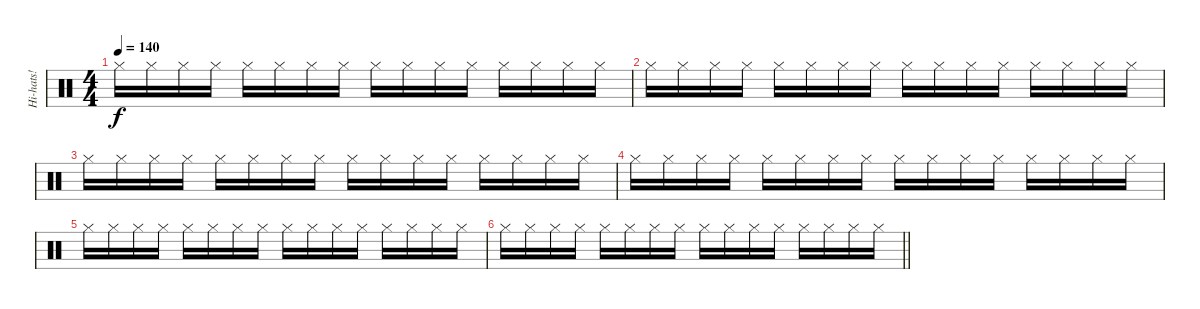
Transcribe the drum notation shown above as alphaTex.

\track ("Hi-hats!" "Hi-hats!") {instrument percussion}
\staff {score}
\articulation defaults
\ts (4 4)
\tempo 140
\clef neutral
\ks c "Hi-Hat (closed)".16{dy f} "Hi-Hat (closed)".16 "Hi-Hat (closed)".16 "Hi-Hat (closed)".16 "Hi-Hat (closed)".16 "Hi-Hat (closed)".16 "Hi-Hat (closed)".16 "Hi-Hat (closed)".16 "Hi-Hat (closed)".16 "Hi-Hat (closed)".16 "Hi-Hat (closed)".16 "Hi-Hat (closed)".16 "Hi-Hat (closed)".16 "Hi-Hat (closed)".16 "Hi-Hat (closed)".16 "Hi-Hat (closed)".16
|
"Hi-Hat (closed)".16 "Hi-Hat (closed)".16 "Hi-Hat (closed)".16 "Hi-Hat (closed)".16 "Hi-Hat (closed)".16 "Hi-Hat (closed)".16 "Hi-Hat (closed)".16 "Hi-Hat (closed)".16 "Hi-Hat (closed)".16 "Hi-Hat (closed)".16 "Hi-Hat (closed)".16 "Hi-Hat (closed)".16 "Hi-Hat (closed)".16 "Hi-Hat (closed)".16 "Hi-Hat (closed)".16 "Hi-Hat (closed)".16 |
"Hi-Hat (closed)".16 "Hi-Hat (closed)".16 "Hi-Hat (closed)".16 "Hi-Hat (closed)".16 "Hi-Hat (closed)".16 "Hi-Hat (closed)".16 "Hi-Hat (closed)".16 "Hi-Hat (closed)".16 "Hi-Hat (closed)".16 "Hi-Hat (closed)".16 "Hi-Hat (closed)".16 "Hi-Hat (closed)".16 "Hi-Hat (closed)".16 "Hi-Hat (closed)".16 "Hi-Hat (closed)".16 "Hi-Hat (closed)".16 |
"Hi-Hat (closed)".16 "Hi-Hat (closed)".16 "Hi-Hat (closed)".16 "Hi-Hat (closed)".16 "Hi-Hat (closed)".16 "Hi-Hat (closed)".16 "Hi-Hat (closed)".16 "Hi-Hat (closed)".16 "Hi-Hat (closed)".16 "Hi-Hat (closed)".16 "Hi-Hat (closed)".16 "Hi-Hat (closed)".16 "Hi-Hat (closed)".16 "Hi-Hat (closed)".16 "Hi-Hat (closed)".16 "Hi-Hat (closed)".16 |
"Hi-Hat (closed)".16 "Hi-Hat (closed)".16 "Hi-Hat (closed)".16 "Hi-Hat (closed)".16 "Hi-Hat (closed)".16 "Hi-Hat (closed)".16 "Hi-Hat (closed)".16 "Hi-Hat (closed)".16 "Hi-Hat (closed)".16 "Hi-Hat (closed)".16 "Hi-Hat (closed)".16 "Hi-Hat (closed)".16 "Hi-Hat (closed)".16 "Hi-Hat (closed)".16 "Hi-Hat (closed)".16 "Hi-Hat (closed)".16 |
\barLineRight lightlight "Hi-Hat (closed)".16 "Hi-Hat (closed)".16 "Hi-Hat (closed)".16 "Hi-Hat (closed)".16 "Hi-Hat (closed)".16 "Hi-Hat (closed)".16 "Hi-Hat (closed)".16 "Hi-Hat (closed)".16 "Hi-Hat (closed)".16 "Hi-Hat (closed)".16 "Hi-Hat (closed)".16 "Hi-Hat (closed)".16 "Hi-Hat (closed)".16 "Hi-Hat (closed)".16 "Hi-Hat (closed)".16 "Hi-Hat (closed)".16
